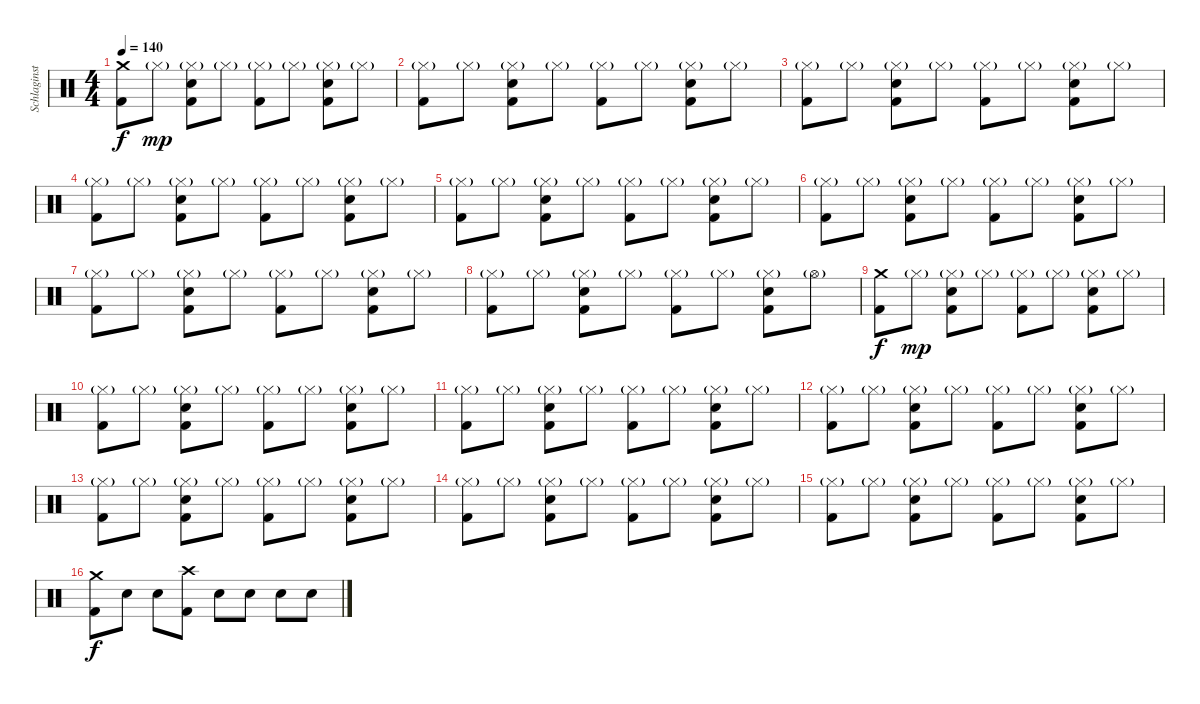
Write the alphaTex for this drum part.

\track ("Schlaginstrumente - Auswahl" "Schlaginst") {instrument percussion}
\staff {score}
\articulation defaults
\ts (4 4)
\tempo 140
\clef neutral
\ks c
("Crash medium (hit)" "Kick (hit) 2").8{dy f} "Hi-Hat (closed)"{g}.8{dy mp} ("Hi-Hat (closed)"{g} "Electric Snare (hit)" "Kick (hit) 2").8 "Hi-Hat (closed)"{g}.8 ("Hi-Hat (closed)"{g} "Kick (hit) 2").8 "Hi-Hat (closed)"{g}.8 ("Hi-Hat (closed)"{g} "Electric Snare (hit)" "Kick (hit) 2").8 "Hi-Hat (closed)"{g}.8 |
("Hi-Hat (closed)"{g} "Kick (hit) 2").8 "Hi-Hat (closed)"{g}.8 ("Hi-Hat (closed)"{g} "Electric Snare (hit)" "Kick (hit) 2").8 "Hi-Hat (closed)"{g}.8 ("Hi-Hat (closed)"{g} "Kick (hit) 2").8 "Hi-Hat (closed)"{g}.8 ("Hi-Hat (closed)"{g} "Electric Snare (hit)" "Kick (hit) 2").8 "Hi-Hat (closed)"{g}.8 |
("Hi-Hat (closed)"{g} "Kick (hit) 2").8 "Hi-Hat (closed)"{g}.8 ("Hi-Hat (closed)"{g} "Electric Snare (hit)" "Kick (hit) 2").8 "Hi-Hat (closed)"{g}.8 ("Hi-Hat (closed)"{g} "Kick (hit) 2").8 "Hi-Hat (closed)"{g}.8 ("Hi-Hat (closed)"{g} "Electric Snare (hit)" "Kick (hit) 2").8 "Hi-Hat (closed)"{g}.8 |
("Hi-Hat (closed)"{g} "Kick (hit) 2").8 "Hi-Hat (closed)"{g}.8 ("Hi-Hat (closed)"{g} "Electric Snare (hit)" "Kick (hit) 2").8 "Hi-Hat (closed)"{g}.8 ("Hi-Hat (closed)"{g} "Kick (hit) 2").8 "Hi-Hat (closed)"{g}.8 ("Hi-Hat (closed)"{g} "Electric Snare (hit)" "Kick (hit) 2").8 "Hi-Hat (closed)"{g}.8 |
("Hi-Hat (closed)"{g} "Kick (hit) 2").8 "Hi-Hat (closed)"{g}.8 ("Hi-Hat (closed)"{g} "Electric Snare (hit)" "Kick (hit) 2").8 "Hi-Hat (closed)"{g}.8 ("Hi-Hat (closed)"{g} "Kick (hit) 2").8 "Hi-Hat (closed)"{g}.8 ("Hi-Hat (closed)"{g} "Electric Snare (hit)" "Kick (hit) 2").8 "Hi-Hat (closed)"{g}.8 |
("Hi-Hat (closed)"{g} "Kick (hit) 2").8 "Hi-Hat (closed)"{g}.8 ("Hi-Hat (closed)"{g} "Electric Snare (hit)" "Kick (hit) 2").8 "Hi-Hat (closed)"{g}.8 ("Hi-Hat (closed)"{g} "Kick (hit) 2").8 "Hi-Hat (closed)"{g}.8 ("Hi-Hat (closed)"{g} "Electric Snare (hit)" "Kick (hit) 2").8 "Hi-Hat (closed)"{g}.8 |
("Hi-Hat (closed)"{g} "Kick (hit) 2").8 "Hi-Hat (closed)"{g}.8 ("Hi-Hat (closed)"{g} "Electric Snare (hit)" "Kick (hit) 2").8 "Hi-Hat (closed)"{g}.8 ("Hi-Hat (closed)"{g} "Kick (hit) 2").8 "Hi-Hat (closed)"{g}.8 ("Hi-Hat (closed)"{g} "Electric Snare (hit)" "Kick (hit) 2").8 "Hi-Hat (closed)"{g}.8 |
("Hi-Hat (closed)"{g} "Kick (hit) 2").8 "Hi-Hat (closed)"{g}.8 ("Hi-Hat (closed)"{g} "Electric Snare (hit)" "Kick (hit) 2").8 "Hi-Hat (closed)"{g}.8 ("Hi-Hat (closed)"{g} "Kick (hit) 2").8 "Hi-Hat (closed)"{g}.8 ("Hi-Hat (closed)"{g} "Electric Snare (hit)" "Kick (hit) 2").8 "Hi-Hat (open)"{g}.8 |
("Crash medium (hit)" "Kick (hit) 2").8{dy f} "Hi-Hat (closed)"{g}.8{dy mp} ("Hi-Hat (closed)"{g} "Electric Snare (hit)" "Kick (hit) 2").8 "Hi-Hat (closed)"{g}.8 ("Hi-Hat (closed)"{g} "Kick (hit) 2").8 "Hi-Hat (closed)"{g}.8 ("Hi-Hat (closed)"{g} "Electric Snare (hit)" "Kick (hit) 2").8 "Hi-Hat (closed)"{g}.8 |
("Hi-Hat (closed)"{g} "Kick (hit) 2").8 "Hi-Hat (closed)"{g}.8 ("Hi-Hat (closed)"{g} "Electric Snare (hit)" "Kick (hit) 2").8 "Hi-Hat (closed)"{g}.8 ("Hi-Hat (closed)"{g} "Kick (hit) 2").8 "Hi-Hat (closed)"{g}.8 ("Hi-Hat (closed)"{g} "Electric Snare (hit)" "Kick (hit) 2").8 "Hi-Hat (closed)"{g}.8 |
("Hi-Hat (closed)"{g} "Kick (hit) 2").8 "Hi-Hat (closed)"{g}.8 ("Hi-Hat (closed)"{g} "Electric Snare (hit)" "Kick (hit) 2").8 "Hi-Hat (closed)"{g}.8 ("Hi-Hat (closed)"{g} "Kick (hit) 2").8 "Hi-Hat (closed)"{g}.8 ("Hi-Hat (closed)"{g} "Electric Snare (hit)" "Kick (hit) 2").8 "Hi-Hat (closed)"{g}.8 |
("Hi-Hat (closed)"{g} "Kick (hit) 2").8 "Hi-Hat (closed)"{g}.8 ("Hi-Hat (closed)"{g} "Electric Snare (hit)" "Kick (hit) 2").8 "Hi-Hat (closed)"{g}.8 ("Hi-Hat (closed)"{g} "Kick (hit) 2").8 "Hi-Hat (closed)"{g}.8 ("Hi-Hat (closed)"{g} "Electric Snare (hit)" "Kick (hit) 2").8 "Hi-Hat (closed)"{g}.8 |
("Hi-Hat (closed)"{g} "Kick (hit) 2").8 "Hi-Hat (closed)"{g}.8 ("Hi-Hat (closed)"{g} "Electric Snare (hit)" "Kick (hit) 2").8 "Hi-Hat (closed)"{g}.8 ("Hi-Hat (closed)"{g} "Kick (hit) 2").8 "Hi-Hat (closed)"{g}.8 ("Hi-Hat (closed)"{g} "Electric Snare (hit)" "Kick (hit) 2").8 "Hi-Hat (closed)"{g}.8 |
("Hi-Hat (closed)"{g} "Kick (hit) 2").8 "Hi-Hat (closed)"{g}.8 ("Hi-Hat (closed)"{g} "Electric Snare (hit)" "Kick (hit) 2").8 "Hi-Hat (closed)"{g}.8 ("Hi-Hat (closed)"{g} "Kick (hit) 2").8 "Hi-Hat (closed)"{g}.8 ("Hi-Hat (closed)"{g} "Electric Snare (hit)" "Kick (hit) 2").8 "Hi-Hat (closed)"{g}.8 |
("Hi-Hat (closed)"{g} "Kick (hit) 2").8 "Hi-Hat (closed)"{g}.8 ("Hi-Hat (closed)"{g} "Electric Snare (hit)" "Kick (hit) 2").8 "Hi-Hat (closed)"{g}.8 ("Hi-Hat (closed)"{g} "Kick (hit) 2").8 "Hi-Hat (closed)"{g}.8 ("Hi-Hat (closed)"{g} "Electric Snare (hit)" "Kick (hit) 2").8 "Hi-Hat (closed)"{g}.8 |
("Crash medium (hit)" "Kick (hit) 2").8{dy f} "Electric Snare (hit)".8 "Electric Snare (hit)".8 ("Crash high (hit)" "Kick (hit) 2").8 "Electric Snare (hit)".8 "Electric Snare (hit)".8 "Electric Snare (hit)".8 "Electric Snare (hit)".8
